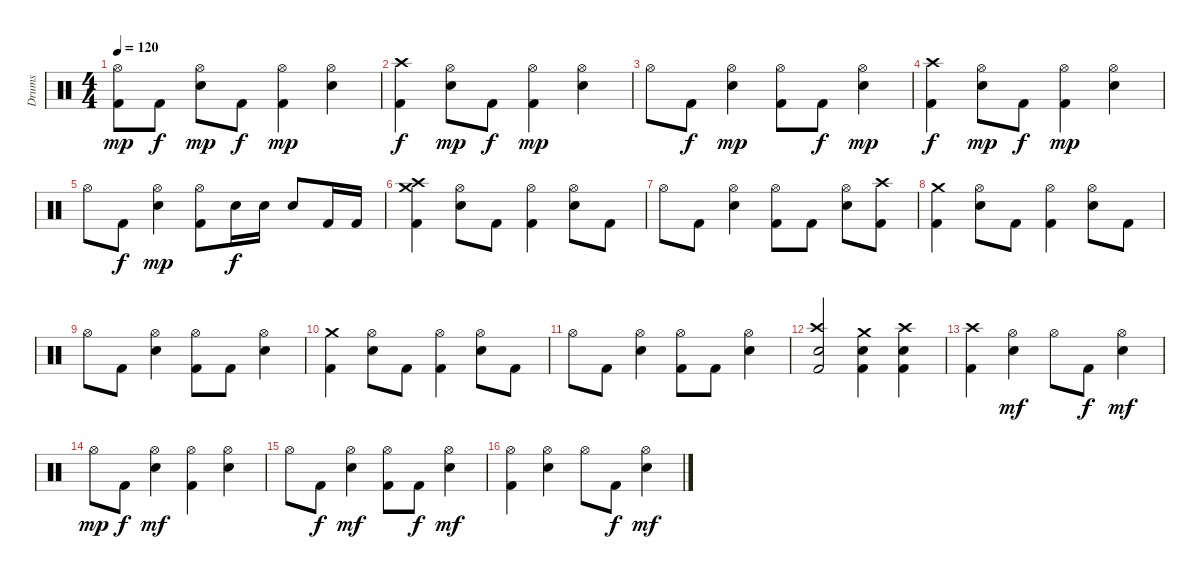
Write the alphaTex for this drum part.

\track ("Drums" "Drums") {instrument percussion}
\staff {score}
\articulation defaults
\ts (4 4)
\tempo 120
\clef neutral
\ks c
("Hi-Hat (open)" "Kick (hit) 2").8{dy mp} "Kick (hit) 2".8{dy f} ("Hi-Hat (open)" "Snare (hit) 2").8{dy mp} "Kick (hit) 2".8{dy f} ("Hi-Hat (open)" "Kick (hit) 2").4{dy mp} ("Hi-Hat (open)" "Snare (hit) 2").4 |
("Crash high (hit)" "Kick (hit) 2").4{dy f} ("Hi-Hat (open)" "Snare (hit) 2").8{dy mp} "Kick (hit) 2".8{dy f} ("Hi-Hat (open)" "Kick (hit) 2").4{dy mp} ("Hi-Hat (open)" "Snare (hit) 2").4 |
"Hi-Hat (open)".8 "Kick (hit) 2".8{dy f} ("Hi-Hat (open)" "Snare (hit) 2").4{dy mp} ("Hi-Hat (open)" "Kick (hit) 2").8 "Kick (hit) 2".8{dy f} ("Hi-Hat (open)" "Snare (hit) 2").4{dy mp} |
("Crash high (hit)" "Kick (hit) 2").4{dy f} ("Hi-Hat (open)" "Snare (hit) 2").8{dy mp} "Kick (hit) 2".8{dy f} ("Hi-Hat (open)" "Kick (hit) 2").4{dy mp} ("Hi-Hat (open)" "Snare (hit) 2").4 |
"Hi-Hat (open)".8 "Kick (hit) 2".8{dy f} ("Hi-Hat (open)" "Snare (hit) 2").4{dy mp} ("Hi-Hat (open)" "Kick (hit) 2").8 "Snare (hit) 2".16{dy f} "Snare (hit) 2".16 "Snare (hit) 2".8 "Kick (hit) 2".16 "Kick (hit) 2".16 |
("Crash high (hit)" "Crash medium (hit)" "Kick (hit) 2").4{volume 11} ("Hi-Hat (open)" "Electric Snare (hit)").8 "Kick (hit) 2".8 ("Hi-Hat (open)" "Kick (hit) 2").4 ("Hi-Hat (open)" "Electric Snare (hit)").8 "Kick (hit) 2".8 |
"Hi-Hat (open)".8 "Kick (hit) 2".8 ("Hi-Hat (open)" "Electric Snare (hit)").4 ("Hi-Hat (open)" "Kick (hit) 2").8 "Kick (hit) 2".8 ("Hi-Hat (open)" "Electric Snare (hit)").8 ("Crash high (hit)" "Kick (hit) 2").8 |
("Crash medium (hit)" "Kick (hit) 2").4 ("Hi-Hat (open)" "Electric Snare (hit)").8 "Kick (hit) 2".8 ("Hi-Hat (open)" "Kick (hit) 2").4 ("Hi-Hat (open)" "Electric Snare (hit)").8 "Kick (hit) 2".8 |
"Hi-Hat (open)".8 "Kick (hit) 2".8 ("Hi-Hat (open)" "Electric Snare (hit)").4 ("Hi-Hat (open)" "Kick (hit) 2").8 "Kick (hit) 2".8 ("Hi-Hat (open)" "Electric Snare (hit)").4 |
("Crash medium (hit)" "Kick (hit) 2").4 ("Hi-Hat (open)" "Electric Snare (hit)").8 "Kick (hit) 2".8 ("Hi-Hat (open)" "Kick (hit) 2").4 ("Hi-Hat (open)" "Electric Snare (hit)").8 "Kick (hit) 2".8 |
"Hi-Hat (open)".8 "Kick (hit) 2".8 ("Hi-Hat (open)" "Electric Snare (hit)").4 ("Hi-Hat (open)" "Kick (hit) 2").8 "Kick (hit) 2".8 ("Hi-Hat (open)" "Electric Snare (hit)").4 |
("Crash high (hit)" "Electric Snare (hit)" "Kick (hit) 2").2 ("Crash medium (hit)" "Snare (hit) 2" "Kick (hit) 2").4 ("Crash high (hit)" "Snare (hit) 2" "Kick (hit) 2").4 |
("Crash high (hit)" "Kick (hit) 2").4 ("Hi-Hat (open)" "Electric Snare (hit)").4{dy mf} "Hi-Hat (open)".8 "Kick (hit) 2".8{dy f} ("Hi-Hat (open)" "Electric Snare (hit)").4{dy mf} |
"Hi-Hat (open)".8{dy mp} "Kick (hit) 2".8{dy f} ("Hi-Hat (open)" "Electric Snare (hit)").4{dy mf} ("Hi-Hat (open)" "Kick (hit) 2").4 ("Hi-Hat (open)" "Electric Snare (hit)").4 |
"Hi-Hat (open)".8 "Kick (hit) 2".8{dy f} ("Hi-Hat (open)" "Electric Snare (hit)").4{dy mf} ("Hi-Hat (open)" "Kick (hit) 2").8 "Kick (hit) 2".8{dy f} ("Hi-Hat (open)" "Electric Snare (hit)").4{dy mf} |
("Hi-Hat (open)" "Kick (hit) 2").4 ("Hi-Hat (open)" "Electric Snare (hit)").4 "Hi-Hat (open)".8 "Kick (hit) 2".8{dy f} ("Hi-Hat (open)" "Electric Snare (hit)").4{dy mf}
